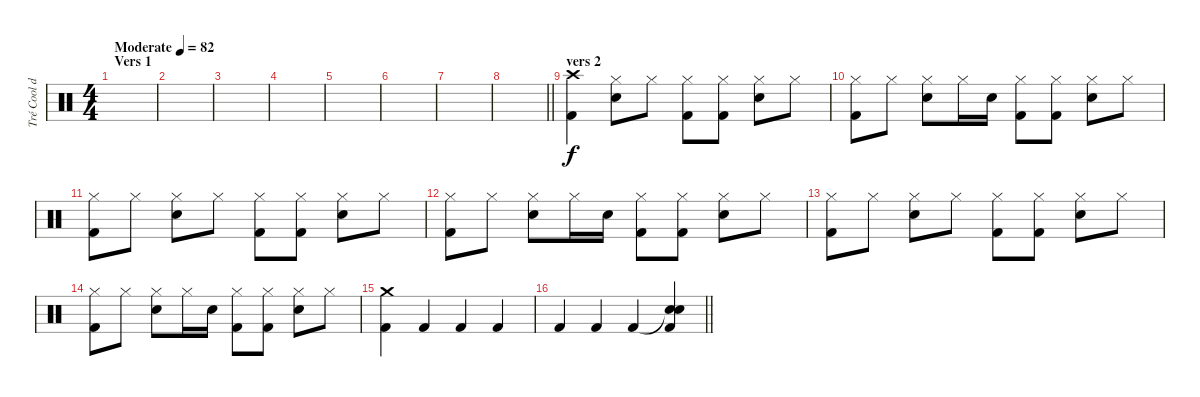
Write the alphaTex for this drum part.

\track ("Tré Cool drums" "Tré Cool d") {instrument percussion}
\staff {score}
\articulation defaults
\ts (4 4)
\section ("" "Vers 1")
\tempo (82 "Moderate")
\clef neutral
\ks c
|
|
|
|
|
|
|
\barLineRight lightlight
|
\section ("" "vers 2")
("Crash high (hit)" "Kick (hit) 2").4 ("Hi-Hat (closed)" "Snare (hit) 2").8 "Hi-Hat (closed)".8 ("Hi-Hat (closed)" "Kick (hit) 2").8 ("Hi-Hat (closed)" "Kick (hit) 2").8 ("Hi-Hat (closed)" "Snare (hit) 2").8 "Hi-Hat (closed)".8 |
("Hi-Hat (closed)" "Kick (hit) 2").8 "Hi-Hat (closed)".8 ("Hi-Hat (closed)" "Snare (hit) 2").8 "Hi-Hat (closed)".16 "Snare (hit) 2".16 ("Hi-Hat (closed)" "Kick (hit) 2").8 ("Hi-Hat (closed)" "Kick (hit) 2").8 ("Hi-Hat (closed)" "Snare (hit) 2").8 "Hi-Hat (closed)".8 |
("Hi-Hat (closed)" "Kick (hit) 2").8 "Hi-Hat (closed)".8 ("Hi-Hat (closed)" "Snare (hit) 2").8 "Hi-Hat (closed)".8 ("Hi-Hat (closed)" "Kick (hit) 2").8 ("Hi-Hat (closed)" "Kick (hit) 2").8 ("Hi-Hat (closed)" "Snare (hit) 2").8 "Hi-Hat (closed)".8 |
("Hi-Hat (closed)" "Kick (hit) 2").8 "Hi-Hat (closed)".8 ("Hi-Hat (closed)" "Snare (hit) 2").8 "Hi-Hat (closed)".16 "Snare (hit) 2".16 ("Hi-Hat (closed)" "Kick (hit) 2").8 ("Hi-Hat (closed)" "Kick (hit) 2").8 ("Hi-Hat (closed)" "Snare (hit) 2").8 "Hi-Hat (closed)".8 |
("Hi-Hat (closed)" "Kick (hit) 2").8 "Hi-Hat (closed)".8 ("Hi-Hat (closed)" "Snare (hit) 2").8 "Hi-Hat (closed)".8 ("Hi-Hat (closed)" "Kick (hit) 2").8 ("Hi-Hat (closed)" "Kick (hit) 2").8 ("Hi-Hat (closed)" "Snare (hit) 2").8 "Hi-Hat (closed)".8 |
("Hi-Hat (closed)" "Kick (hit) 2").8 "Hi-Hat (closed)".8 ("Hi-Hat (closed)" "Snare (hit) 2").8 "Hi-Hat (closed)".16 "Snare (hit) 2".16 ("Hi-Hat (closed)" "Kick (hit) 2").8 ("Hi-Hat (closed)" "Kick (hit) 2").8 ("Hi-Hat (closed)" "Snare (hit) 2").8 "Hi-Hat (closed)".8 |
("Crash medium (hit)" "Kick (hit) 2").4 "Kick (hit) 2".4 "Kick (hit) 2".4 "Kick (hit) 2".4 |
\barLineRight lightlight "Kick (hit) 2".4 "Kick (hit) 2".4 "Kick (hit) 2".4
("Snare (hit)"{t} "Snare (hit) 2" "Kick (hit) 2").4
